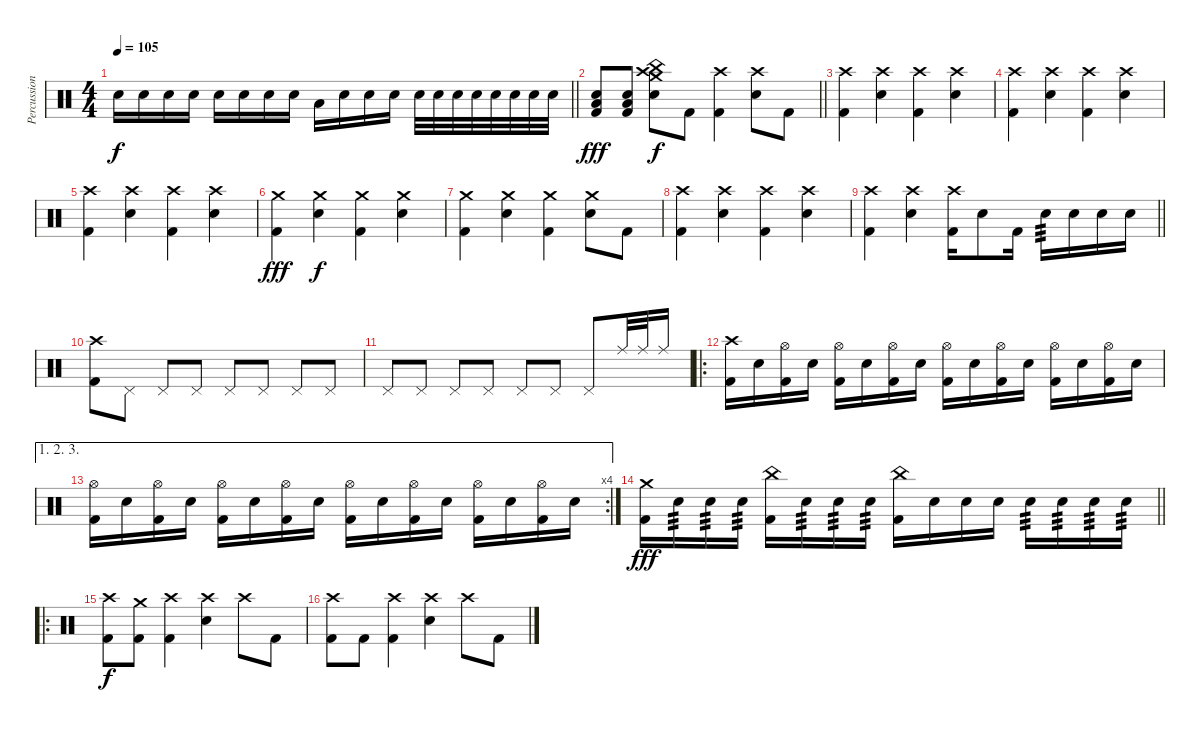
\track ("Percussions" "Percussion") {instrument percussion}
\staff {score}
\articulation defaults
\ts (4 4)
\tempo 105
\clef neutral
\barLineRight lightlight
\ks c "Electric Snare (hit)".16{dy f} "Electric Snare (hit)".16 "Electric Snare (hit)".16 "Electric Snare (hit)".16 "Electric Snare (hit)".16 "Electric Snare (hit)".16 "Electric Snare (hit)".16 "Electric Snare (hit)".16 "Low Tom (hit)".16 "Electric Snare (hit)".16 "Electric Snare (hit)".16 "Electric Snare (hit)".16 "Electric Snare (hit)".32 "Electric Snare (hit)".32 "Electric Snare (hit)".32 "Electric Snare (hit)".32 "Electric Snare (hit)".32 "Electric Snare (hit)".32 "Electric Snare (hit)".32 "Electric Snare (hit)".32
|
\barLineRight lightlight
("Electric Snare (hit)" "Low Tom (hit)" "Kick (hit) 2").8{dy fff} ("Electric Snare (hit)" "Low Tom (hit)" "Kick (hit) 2").8 ("Crash high (hit)" "Crash medium (hit)" "China (hit)" "Electric Snare (hit)").8{dy f} "Kick (hit) 2".8 ("Crash high (hit)" "Kick (hit) 2").4 ("Crash high (hit)" "Electric Snare (hit)").8 "Kick (hit) 2".8 |
("Crash high (hit)" "Kick (hit) 2").4 ("Crash high (hit)" "Electric Snare (hit)").4 ("Crash high (hit)" "Kick (hit) 2").4 ("Crash high (hit)" "Electric Snare (hit)").4 |
("Crash high (hit)" "Kick (hit) 2").4 ("Crash high (hit)" "Electric Snare (hit)").4 ("Crash high (hit)" "Kick (hit) 2").4 ("Crash high (hit)" "Electric Snare (hit)").4 |
("Crash high (hit)" "Kick (hit) 2").4 ("Crash high (hit)" "Electric Snare (hit)").4 ("Crash high (hit)" "Kick (hit) 2").4 ("Crash high (hit)" "Electric Snare (hit)").4 |
("Crash medium (hit)" "Kick (hit) 2").4{dy fff} ("Crash medium (hit)" "Electric Snare (hit)").4{dy f} ("Crash medium (hit)" "Kick (hit) 2").4 ("Crash medium (hit)" "Electric Snare (hit)").4 |
("Crash medium (hit)" "Kick (hit) 2").4 ("Crash medium (hit)" "Electric Snare (hit)").4 ("Crash medium (hit)" "Kick (hit) 2").4 ("Crash medium (hit)" "Electric Snare (hit)").8 "Kick (hit) 2".8 |
("Crash high (hit)" "Kick (hit) 2").4 ("Crash high (hit)" "Electric Snare (hit)").4 ("Crash high (hit)" "Kick (hit) 2").4 ("Crash high (hit)" "Electric Snare (hit)").4 |
\barLineRight lightlight
("Crash high (hit)" "Kick (hit) 2").4 ("Crash high (hit)" "Electric Snare (hit)").4 ("Crash high (hit)" "Kick (hit) 2").16 "Electric Snare (hit)".8 "Kick (hit) 2".16 "Electric Snare (hit)".16{tp 3} "Electric Snare (hit)".16 "Electric Snare (hit)".16 "Electric Snare (hit)".16 |
\section ("" "")
("Crash high (hit)" "Kick (hit) 2").8 "Pedal Hi-Hat (hit)".8 "Pedal Hi-Hat (hit)".8 "Pedal Hi-Hat (hit)".8 "Pedal Hi-Hat (hit)".8 "Pedal Hi-Hat (hit)".8 "Pedal Hi-Hat (hit)".8 "Pedal Hi-Hat (hit)".8 |
"Pedal Hi-Hat (hit)".8 "Pedal Hi-Hat (hit)".8 "Pedal Hi-Hat (hit)".8 "Pedal Hi-Hat (hit)".8 "Pedal Hi-Hat (hit)".8 "Pedal Hi-Hat (hit)".8 "Pedal Hi-Hat (hit)".8 "Ride (middle)".32 "Ride (middle)".32 "Ride (middle)".16 |
\ro
("Crash high (hit)" "Kick (hit) 2").16 "Electric Snare (hit)".16 ("Hi-Hat (open)" "Kick (hit) 2").16 "Electric Snare (hit)".16 ("Hi-Hat (open)" "Kick (hit) 2").16 "Electric Snare (hit)".16 ("Hi-Hat (open)" "Kick (hit) 2").16 "Electric Snare (hit)".16 ("Hi-Hat (open)" "Kick (hit) 2").16 "Electric Snare (hit)".16 ("Hi-Hat (open)" "Kick (hit) 2").16 "Electric Snare (hit)".16 ("Hi-Hat (open)" "Kick (hit) 2").16 "Electric Snare (hit)".16 ("Hi-Hat (open)" "Kick (hit) 2").16 "Electric Snare (hit)".16 |
\ae (1 2 3)
\rc 4
("Hi-Hat (open)" "Kick (hit) 2").16 "Electric Snare (hit)".16 ("Hi-Hat (open)" "Kick (hit) 2").16 "Electric Snare (hit)".16 ("Hi-Hat (open)" "Kick (hit) 2").16 "Electric Snare (hit)".16 ("Hi-Hat (open)" "Kick (hit) 2").16 "Electric Snare (hit)".16 ("Hi-Hat (open)" "Kick (hit) 2").16 "Electric Snare (hit)".16 ("Hi-Hat (open)" "Kick (hit) 2").16 "Electric Snare (hit)".16 ("Hi-Hat (open)" "Kick (hit) 2").16 "Electric Snare (hit)".16 ("Hi-Hat (open)" "Kick (hit) 2").16 "Electric Snare (hit)".16 |
\barLineRight lightlight
("Crash medium (hit)" "Kick (hit) 2").16{dy fff} "Electric Snare (hit)".16{tp 3} "Electric Snare (hit)".16{tp 3} "Electric Snare (hit)".16{tp 3} ("China (hit)" "Kick (hit) 2").16 "Electric Snare (hit)".16{tp 3} "Electric Snare (hit)".16{tp 3} "Electric Snare (hit)".16{tp 3} ("China (hit)" "Kick (hit) 2").16 "Electric Snare (hit)".16 "Electric Snare (hit)".16 "Electric Snare (hit)".16 "Electric Snare (hit)".16{tp 3} "Electric Snare (hit)".16{tp 3} "Electric Snare (hit)".16{tp 3} "Electric Snare (hit)".16{tp 3} |
\ro
("Crash high (hit)" "Kick (hit) 2").8{dy f} ("Crash medium (hit)" "Kick (hit) 2").8 ("Crash high (hit)" "Kick (hit) 2").4 ("Crash high (hit)" "Electric Snare (hit)").4 "Crash high (hit)".8 "Kick (hit) 2".8 |
("Crash high (hit)" "Kick (hit) 2").8 "Kick (hit) 2".8 ("Crash high (hit)" "Kick (hit) 2").4 ("Crash high (hit)" "Electric Snare (hit)").4 "Crash high (hit)".8 "Kick (hit) 2".8
